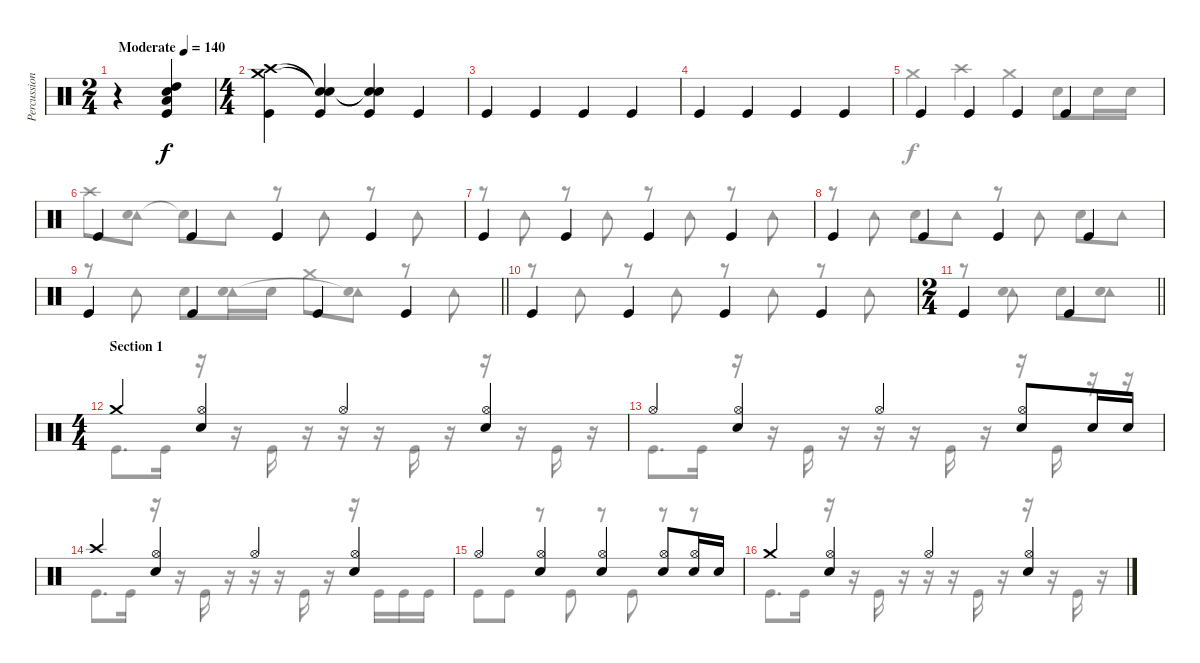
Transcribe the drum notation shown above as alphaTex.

\track ("Percussion" "Percussion") {instrument percussion}
\staff {score}
\articulation defaults
\voice
\ts (2 4)
\tempo (140 "Moderate")
\clef neutral
\ks c
r.4{dy f} ("High Tom (hit)" "Snare (hit) 2" "Low Tom (hit)" "Kick (hit)").4 |
\ts (4 4)
("Crash high (hit)" "Crash medium (hit)" "Kick (hit)").4 ("Snare (hit)"{t} "Snare (hit)"{t} "Kick (hit)").4 ("Snare (hit)"{t} "Snare (hit)"{t} "Kick (hit)").4 "Kick (hit)".4 |
"Kick (hit)".4 "Kick (hit)".4 "Kick (hit)".4 "Kick (hit)".4 |
"Kick (hit)".4 "Kick (hit)".4 "Kick (hit)".4 "Kick (hit)".4 |
"Kick (hit)".4 "Kick (hit)".4 "Kick (hit)".4 "Kick (hit)".4 |
"Kick (hit)".4 "Kick (hit)".4 "Kick (hit)".4 "Kick (hit)".4 |
"Kick (hit)".4 "Kick (hit)".4 "Kick (hit)".4 "Kick (hit)".4 |
"Kick (hit)".4 "Kick (hit)".4 "Kick (hit)".4 "Kick (hit)".4 |
\barLineRight lightlight "Kick (hit)".4 "Kick (hit)".4 "Kick (hit)".4 "Kick (hit)".4
|
"Kick (hit)".4 "Kick (hit)".4 "Kick (hit)".4 "Kick (hit)".4 |
\ts (2 4)
\barLineRight lightlight "Kick (hit)".4 "Kick (hit)".4
|
\ts (4 4)
\section ("" "Section 1")
"Crash medium (hit)".4 ("Hi-Hat (open)" "Snare (hit) 2").4 "Hi-Hat (open)".4 ("Hi-Hat (open)" "Snare (hit) 2").4 |
"Hi-Hat (open)".4 ("Hi-Hat (open)" "Snare (hit) 2").4 "Hi-Hat (open)".4 ("Hi-Hat (open)" "Snare (hit) 2").8 "Snare (hit) 2".16 "Snare (hit) 2".16 |
"Crash high (hit)".4 ("Hi-Hat (open)" "Snare (hit) 2").4 "Hi-Hat (open)".4 ("Hi-Hat (open)" "Snare (hit) 2").4 |
"Hi-Hat (open)".4 ("Hi-Hat (open)" "Snare (hit) 2").4 ("Hi-Hat (open)" "Snare (hit) 2").4 ("Hi-Hat (open)" "Snare (hit) 2").8 ("Hi-Hat (open)" "Snare (hit) 2").16 "Snare (hit) 2".16 |
"Crash medium (hit)".4 ("Hi-Hat (open)" "Snare (hit) 2").4 "Hi-Hat (open)".4 ("Hi-Hat (open)" "Snare (hit) 2").4
\voice
\clef neutral
\ottava regular
\simile none
\ks c
|
|
|
|
"Crash medium (hit)".4 "Crash high (hit)".4 "Crash medium (hit)".4 "Snare (hit) 2".8 "Snare (hit) 2".16 "Snare (hit) 2".16 |
"Crash high (hit)".8 ("Tambourine (hit)" "Snare (hit)").8 "Snare (hit)"{t}.8 "Tambourine (hit)".8 r.8 "Tambourine (hit)".8 r.8 "Tambourine (hit)".8 |
r.8 "Tambourine (hit)".8 r.8 "Tambourine (hit)".8 r.8 "Tambourine (hit)".8 r.8 "Tambourine (hit)".8 |
r.8 "Tambourine (hit)".8 "Snare (hit) 2".8 "Tambourine (hit)".8 r.8 "Tambourine (hit)".8 "Snare (hit) 2".8 "Tambourine (hit)".8 |
\barLineRight lightlight
r.8 "Tambourine (hit)".8 "Snare (hit) 2".8 ("Tambourine (hit)" "Snare (hit) 2").16 "Snare (hit) 2".16 "Crash medium (hit)".8 ("Tambourine (hit)" "Snare (hit)"{t}).8 r.8 "Tambourine (hit)".8 |
r.8 "Tambourine (hit)".8 r.8 "Tambourine (hit)".8 r.8 "Tambourine (hit)".8 r.8 "Tambourine (hit)".8 |
\barLineRight lightlight
r.8 ("Tambourine (hit)" "Snare (hit) 2").8 "Snare (hit) 2".8 ("Tambourine (hit)" "Snare (hit) 2").8 |
"Kick (hit)".8{d} "Kick (hit)".16 r.16 r.16 "Kick (hit)".16 r.16 r.16 r.16 "Kick (hit)".16 r.16 r.16 r.16 "Kick (hit)".16 r.16 |
"Kick (hit)".8{d} "Kick (hit)".16 r.16 r.16 "Kick (hit)".16 r.16 r.16 r.16 "Kick (hit)".16 r.16 r.16 "Kick (hit)".16 r.16 r.16 |
"Kick (hit)".8{d} "Kick (hit)".16 r.16 r.16 "Kick (hit)".16 r.16 r.16 r.16 "Kick (hit)".16 r.16 r.16 "Kick (hit)".16 "Kick (hit)".16 "Kick (hit)".16 |
"Kick (hit)".8 "Kick (hit)".8 r.8 "Kick (hit)".8 r.8 "Kick (hit)".8 r.8 r.8 |
"Kick (hit)".8{d} "Kick (hit)".16 r.16 r.16 "Kick (hit)".16 r.16 r.16 r.16 "Kick (hit)".16 r.16 r.16 r.16 "Kick (hit)".16 r.16
